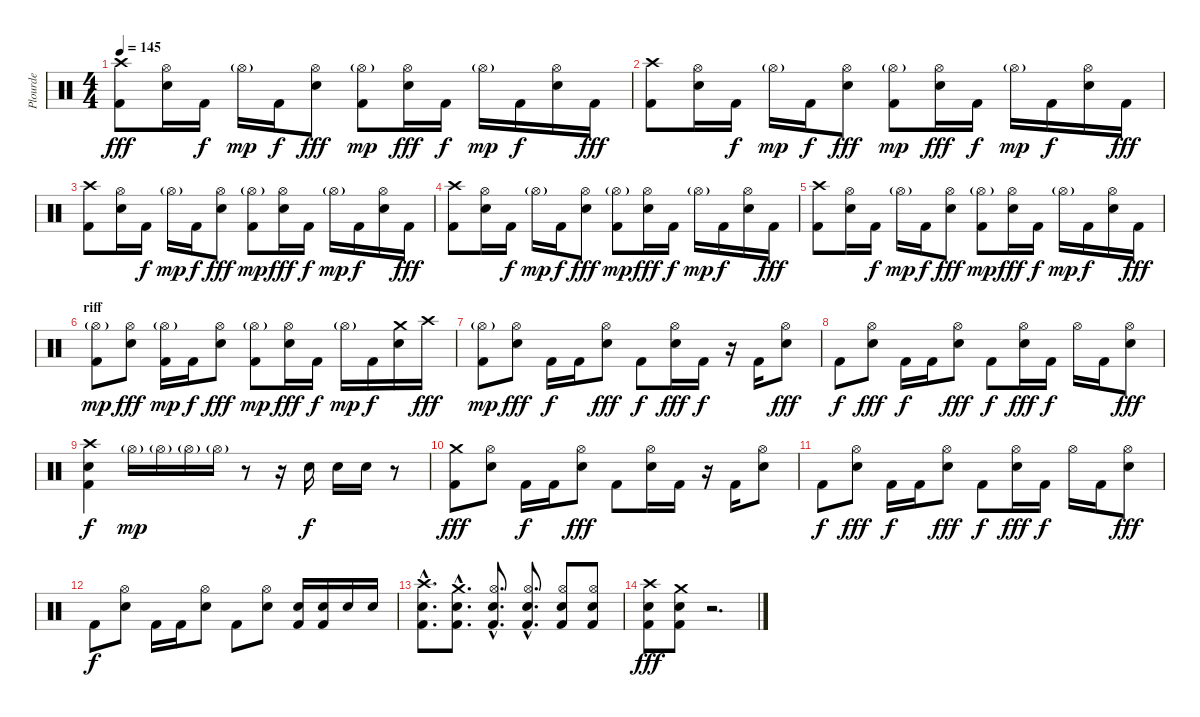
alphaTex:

\track ("Plourde" "Plourde") {instrument percussion}
\staff {score}
\articulation defaults
\ts (4 4)
\tempo 145
\clef neutral
\ks c
("Crash high (hit)" "Kick (hit) 2").8{dy fff} ("Hi-Hat (open)" "Electric Snare (hit)").16 "Kick (hit) 2".16{dy f} "Hi-Hat (open)"{g}.16{dy mp} "Kick (hit) 2".16{dy f} ("Hi-Hat (open)" "Electric Snare (hit)").8{dy fff} ("Hi-Hat (open)"{g} "Kick (hit) 2").8{dy mp} ("Hi-Hat (open)" "Electric Snare (hit)").16{dy fff} "Kick (hit) 2".16{dy f} "Hi-Hat (open)"{g}.16{dy mp} "Kick (hit) 2".16{dy f} ("Hi-Hat (open)" "Electric Snare (hit)").16 "Kick (hit) 2".16{dy fff} |
("Crash high (hit)" "Kick (hit) 2").8 ("Hi-Hat (open)" "Electric Snare (hit)").16 "Kick (hit) 2".16{dy f} "Hi-Hat (open)"{g}.16{dy mp} "Kick (hit) 2".16{dy f} ("Hi-Hat (open)" "Electric Snare (hit)").8{dy fff} ("Hi-Hat (open)"{g} "Kick (hit) 2").8{dy mp} ("Hi-Hat (open)" "Electric Snare (hit)").16{dy fff} "Kick (hit) 2".16{dy f} "Hi-Hat (open)"{g}.16{dy mp} "Kick (hit) 2".16{dy f} ("Hi-Hat (open)" "Electric Snare (hit)").16 "Kick (hit) 2".16{dy fff} |
("Crash high (hit)" "Kick (hit) 2").8 ("Hi-Hat (open)" "Electric Snare (hit)").16 "Kick (hit) 2".16{dy f} "Hi-Hat (open)"{g}.16{dy mp} "Kick (hit) 2".16{dy f} ("Hi-Hat (open)" "Electric Snare (hit)").8{dy fff} ("Hi-Hat (open)"{g} "Kick (hit) 2").8{dy mp} ("Hi-Hat (open)" "Electric Snare (hit)").16{dy fff} "Kick (hit) 2".16{dy f} "Hi-Hat (open)"{g}.16{dy mp} "Kick (hit) 2".16{dy f} ("Hi-Hat (open)" "Electric Snare (hit)").16 "Kick (hit) 2".16{dy fff} |
("Crash high (hit)" "Kick (hit) 2").8 ("Hi-Hat (open)" "Electric Snare (hit)").16 "Kick (hit) 2".16{dy f} "Hi-Hat (open)"{g}.16{dy mp} "Kick (hit) 2".16{dy f} ("Hi-Hat (open)" "Electric Snare (hit)").8{dy fff} ("Hi-Hat (open)"{g} "Kick (hit) 2").8{dy mp} ("Hi-Hat (open)" "Electric Snare (hit)").16{dy fff} "Kick (hit) 2".16{dy f} "Hi-Hat (open)"{g}.16{dy mp} "Kick (hit) 2".16{dy f} ("Hi-Hat (open)" "Electric Snare (hit)").16 "Kick (hit) 2".16{dy fff} |
("Crash high (hit)" "Kick (hit) 2").8 ("Hi-Hat (open)" "Electric Snare (hit)").16 "Kick (hit) 2".16{dy f} "Hi-Hat (open)"{g}.16{dy mp} "Kick (hit) 2".16{dy f} ("Hi-Hat (open)" "Electric Snare (hit)").8{dy fff} ("Hi-Hat (open)"{g} "Kick (hit) 2").8{dy mp} ("Hi-Hat (open)" "Electric Snare (hit)").16{dy fff} "Kick (hit) 2".16{dy f} "Hi-Hat (open)"{g}.16{dy mp} "Kick (hit) 2".16{dy f} ("Hi-Hat (open)" "Electric Snare (hit)").16 "Kick (hit) 2".16{dy fff} |
\section ("" "riff")
("Hi-Hat (open)"{g} "Kick (hit) 2").8{dy mp} ("Hi-Hat (open)" "Electric Snare (hit)").8{dy fff} ("Hi-Hat (open)"{g} "Kick (hit) 2").16{dy mp} "Kick (hit) 2".16{dy f} ("Hi-Hat (open)" "Electric Snare (hit)").8{dy fff} ("Hi-Hat (open)"{g} "Kick (hit) 2").8{dy mp} ("Hi-Hat (open)" "Electric Snare (hit)").16{dy fff} "Kick (hit) 2".16{dy f} "Hi-Hat (open)"{g}.16{dy mp} "Kick (hit) 2".16{dy f} ("Crash medium (hit)" "Electric Snare (hit)").16 "Crash high (hit)".16{dy fff} |
("Hi-Hat (open)"{g} "Kick (hit) 2").8{dy mp} ("Hi-Hat (open)" "Electric Snare (hit)").8{dy fff} "Kick (hit) 2".16{dy f} "Kick (hit) 2".16 ("Hi-Hat (open)" "Electric Snare (hit)").8{dy fff} "Kick (hit) 2".8{dy f} ("Hi-Hat (open)" "Electric Snare (hit)").16{dy fff} "Kick (hit) 2".16{dy f} r.16 "Kick (hit) 2".16 ("Hi-Hat (open)" "Electric Snare (hit)").8{dy fff} |
"Kick (hit) 2".8{dy f} ("Hi-Hat (open)" "Electric Snare (hit)").8{dy fff} "Kick (hit) 2".16{dy f} "Kick (hit) 2".16 ("Hi-Hat (open)" "Electric Snare (hit)").8{dy fff} "Kick (hit) 2".8{dy f} ("Hi-Hat (open)" "Electric Snare (hit)").16{dy fff} "Kick (hit) 2".16{dy f} "Hi-Hat (open)".16 "Kick (hit) 2".16 ("Hi-Hat (open)" "Electric Snare (hit)").8{dy fff} |
("Crash high (hit)" "Kick (hit) 2" "Electric Snare (hit)").4{dy f} "Hi-Hat (open)"{g}.16{dy mp} "Hi-Hat (open)"{g}.16 "Hi-Hat (open)"{g}.16 "Hi-Hat (open)"{g}.16 r.8 r.16 "Electric Snare (hit)".16{dy f} "Electric Snare (hit)".16 "Electric Snare (hit)".16 r.8 |
("Crash medium (hit)" "Kick (hit) 2").8{dy fff} ("Hi-Hat (open)" "Electric Snare (hit)").8 "Kick (hit) 2".16{dy f} "Kick (hit) 2".16 ("Hi-Hat (open)" "Electric Snare (hit)").8{dy fff} "Kick (hit) 2".8 ("Hi-Hat (open)" "Electric Snare (hit)").16 "Kick (hit) 2".16 r.16 "Kick (hit) 2".16 ("Hi-Hat (open)" "Electric Snare (hit)").8 |
"Kick (hit) 2".8{dy f} ("Hi-Hat (open)" "Electric Snare (hit)").8{dy fff} "Kick (hit) 2".16{dy f} "Kick (hit) 2".16 ("Hi-Hat (open)" "Electric Snare (hit)").8{dy fff} "Kick (hit) 2".8{dy f} ("Hi-Hat (open)" "Electric Snare (hit)").16{dy fff} "Kick (hit) 2".16{dy f} "Hi-Hat (open)".16 "Kick (hit) 2".16 ("Hi-Hat (open)" "Electric Snare (hit)").8{dy fff} |
"Kick (hit) 2".8{dy f} ("Hi-Hat (open)" "Electric Snare (hit)").8 "Kick (hit) 2".16 "Kick (hit) 2".16 ("Hi-Hat (open)" "Electric Snare (hit)").8 "Kick (hit) 2".8 ("Hi-Hat (open)" "Electric Snare (hit)").8 ("Electric Snare (hit)" "Kick (hit) 2").16 ("Electric Snare (hit)" "Kick (hit) 2").16 "Electric Snare (hit)".16 "Electric Snare (hit)".16 |
("Crash high (hit)"{hac} "Electric Snare (hit)"{hac} "Kick (hit) 2"{hac}).8{d} ("Crash medium (hit)"{hac} "Electric Snare (hit)"{hac} "Kick (hit) 2"{hac}).8{d} ("Hi-Hat (open)"{hac} "Electric Snare (hit)"{hac} "Kick (hit) 2"{hac}).8{d} ("Hi-Hat (open)"{hac} "Electric Snare (hit)"{hac} "Kick (hit) 2"{hac}).8{d} ("Hi-Hat (open)" "Electric Snare (hit)" "Kick (hit) 2").8 ("Hi-Hat (open)" "Electric Snare (hit)" "Kick (hit) 2").8 |
("Crash high (hit)" "Electric Snare (hit)" "Kick (hit) 2").8{dy fff} ("Crash medium (hit)" "Electric Snare (hit)" "Kick (hit) 2").8 r.2{d}
